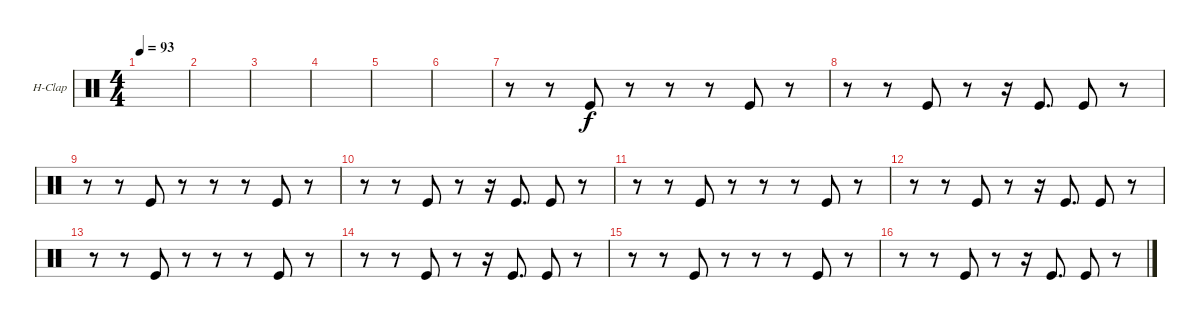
\defaultSystemsLayout 4
\bracketExtendMode groupsimilarinstruments
\firstSystemTrackNameOrientation horizontal
\otherSystemsTrackNameOrientation horizontal
\track ("Hand Clap" "H-Clap") {instrument percussion}
\staff {score}
\articulation defaults
\ts (4 4)
\tempo 93
\clef neutral
\ks c
|
|
|
|
|
|
r.8 r.8 "Kick (hit)".8 r.8 r.8 r.8 "Kick (hit)".8 r.8 |
r.8 r.8 "Kick (hit)".8 r.8 r.16 "Kick (hit)".8{d} "Kick (hit)".8 r.8 |
r.8 r.8 "Kick (hit)".8 r.8 r.8 r.8 "Kick (hit)".8 r.8 |
r.8 r.8 "Kick (hit)".8 r.8 r.16 "Kick (hit)".8{d} "Kick (hit)".8 r.8 |
r.8 r.8 "Kick (hit)".8 r.8 r.8 r.8 "Kick (hit)".8 r.8 |
r.8 r.8 "Kick (hit)".8 r.8 r.16 "Kick (hit)".8{d} "Kick (hit)".8 r.8 |
r.8 r.8 "Kick (hit)".8 r.8 r.8 r.8 "Kick (hit)".8 r.8 |
r.8 r.8 "Kick (hit)".8 r.8 r.16 "Kick (hit)".8{d} "Kick (hit)".8 r.8 |
r.8 r.8 "Kick (hit)".8 r.8 r.8 r.8 "Kick (hit)".8 r.8 |
r.8 r.8 "Kick (hit)".8 r.8 r.16 "Kick (hit)".8{d} "Kick (hit)".8 r.8
